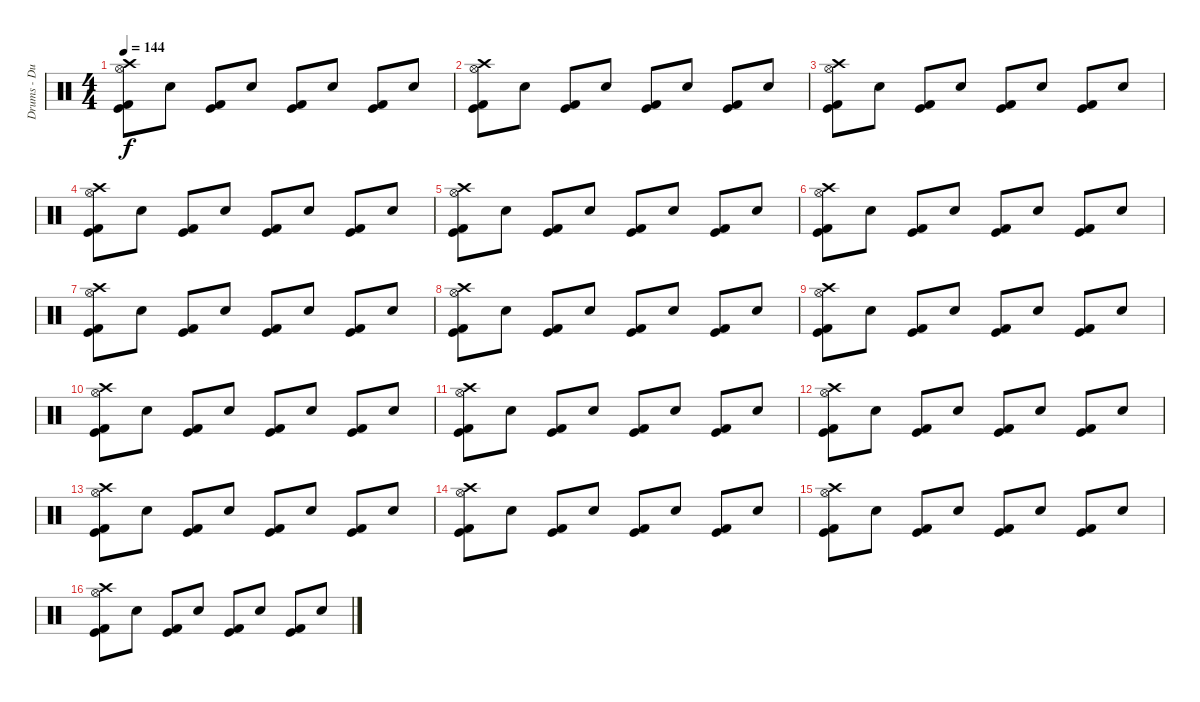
\track ("Drums - Duncan Scott" "Drums - Du") {instrument percussion}
\staff {score}
\articulation defaults
\ts (4 4)
\tempo 144
\clef neutral
\ks c
("Crash high (hit)" "Hi-Hat (open)" "Kick (hit)" "Kick (hit) 2").8{dy f} "Electric Snare (hit)".8 ("Kick (hit)" "Kick (hit) 2").8 "Electric Snare (hit)".8 ("Kick (hit)" "Kick (hit) 2").8 "Electric Snare (hit)".8 ("Kick (hit)" "Kick (hit) 2").8 "Electric Snare (hit)".8 |
("Crash high (hit)" "Hi-Hat (open)" "Kick (hit)" "Kick (hit) 2").8 "Electric Snare (hit)".8 ("Kick (hit)" "Kick (hit) 2").8 "Electric Snare (hit)".8 ("Kick (hit)" "Kick (hit) 2").8 "Electric Snare (hit)".8 ("Kick (hit)" "Kick (hit) 2").8 "Electric Snare (hit)".8 |
("Crash high (hit)" "Hi-Hat (open)" "Kick (hit)" "Kick (hit) 2").8 "Electric Snare (hit)".8 ("Kick (hit)" "Kick (hit) 2").8 "Electric Snare (hit)".8 ("Kick (hit)" "Kick (hit) 2").8 "Electric Snare (hit)".8 ("Kick (hit)" "Kick (hit) 2").8 "Electric Snare (hit)".8 |
("Crash high (hit)" "Hi-Hat (open)" "Kick (hit)" "Kick (hit) 2").8 "Electric Snare (hit)".8 ("Kick (hit)" "Kick (hit) 2").8 "Electric Snare (hit)".8 ("Kick (hit)" "Kick (hit) 2").8 "Electric Snare (hit)".8 ("Kick (hit)" "Kick (hit) 2").8 "Electric Snare (hit)".8 |
("Crash high (hit)" "Hi-Hat (open)" "Kick (hit)" "Kick (hit) 2").8 "Electric Snare (hit)".8 ("Kick (hit)" "Kick (hit) 2").8 "Electric Snare (hit)".8 ("Kick (hit)" "Kick (hit) 2").8 "Electric Snare (hit)".8 ("Kick (hit)" "Kick (hit) 2").8 "Electric Snare (hit)".8 |
("Crash high (hit)" "Hi-Hat (open)" "Kick (hit)" "Kick (hit) 2").8 "Electric Snare (hit)".8 ("Kick (hit)" "Kick (hit) 2").8 "Electric Snare (hit)".8 ("Kick (hit)" "Kick (hit) 2").8 "Electric Snare (hit)".8 ("Kick (hit)" "Kick (hit) 2").8 "Electric Snare (hit)".8 |
("Crash high (hit)" "Hi-Hat (open)" "Kick (hit)" "Kick (hit) 2").8 "Electric Snare (hit)".8 ("Kick (hit)" "Kick (hit) 2").8 "Electric Snare (hit)".8 ("Kick (hit)" "Kick (hit) 2").8 "Electric Snare (hit)".8 ("Kick (hit)" "Kick (hit) 2").8 "Electric Snare (hit)".8 |
("Crash high (hit)" "Hi-Hat (open)" "Kick (hit)" "Kick (hit) 2").8 "Electric Snare (hit)".8 ("Kick (hit)" "Kick (hit) 2").8 "Electric Snare (hit)".8 ("Kick (hit)" "Kick (hit) 2").8 "Electric Snare (hit)".8 ("Kick (hit)" "Kick (hit) 2").8 "Electric Snare (hit)".8 |
("Crash high (hit)" "Hi-Hat (open)" "Kick (hit)" "Kick (hit) 2").8 "Electric Snare (hit)".8 ("Kick (hit)" "Kick (hit) 2").8 "Electric Snare (hit)".8 ("Kick (hit)" "Kick (hit) 2").8 "Electric Snare (hit)".8 ("Kick (hit)" "Kick (hit) 2").8 "Electric Snare (hit)".8 |
("Crash high (hit)" "Hi-Hat (open)" "Kick (hit)" "Kick (hit) 2").8 "Electric Snare (hit)".8 ("Kick (hit)" "Kick (hit) 2").8 "Electric Snare (hit)".8 ("Kick (hit)" "Kick (hit) 2").8 "Electric Snare (hit)".8 ("Kick (hit)" "Kick (hit) 2").8 "Electric Snare (hit)".8 |
("Crash high (hit)" "Hi-Hat (open)" "Kick (hit)" "Kick (hit) 2").8 "Electric Snare (hit)".8 ("Kick (hit)" "Kick (hit) 2").8 "Electric Snare (hit)".8 ("Kick (hit)" "Kick (hit) 2").8 "Electric Snare (hit)".8 ("Kick (hit)" "Kick (hit) 2").8 "Electric Snare (hit)".8 |
("Crash high (hit)" "Hi-Hat (open)" "Kick (hit)" "Kick (hit) 2").8 "Electric Snare (hit)".8 ("Kick (hit)" "Kick (hit) 2").8 "Electric Snare (hit)".8 ("Kick (hit)" "Kick (hit) 2").8 "Electric Snare (hit)".8 ("Kick (hit)" "Kick (hit) 2").8 "Electric Snare (hit)".8 |
("Crash high (hit)" "Hi-Hat (open)" "Kick (hit)" "Kick (hit) 2").8 "Electric Snare (hit)".8 ("Kick (hit)" "Kick (hit) 2").8 "Electric Snare (hit)".8 ("Kick (hit)" "Kick (hit) 2").8 "Electric Snare (hit)".8 ("Kick (hit)" "Kick (hit) 2").8 "Electric Snare (hit)".8 |
("Crash high (hit)" "Hi-Hat (open)" "Kick (hit)" "Kick (hit) 2").8 "Electric Snare (hit)".8 ("Kick (hit)" "Kick (hit) 2").8 "Electric Snare (hit)".8 ("Kick (hit)" "Kick (hit) 2").8 "Electric Snare (hit)".8 ("Kick (hit)" "Kick (hit) 2").8 "Electric Snare (hit)".8 |
("Crash high (hit)" "Hi-Hat (open)" "Kick (hit)" "Kick (hit) 2").8 "Electric Snare (hit)".8 ("Kick (hit)" "Kick (hit) 2").8 "Electric Snare (hit)".8 ("Kick (hit)" "Kick (hit) 2").8 "Electric Snare (hit)".8 ("Kick (hit)" "Kick (hit) 2").8 "Electric Snare (hit)".8 |
("Crash high (hit)" "Hi-Hat (open)" "Kick (hit)" "Kick (hit) 2").8 "Electric Snare (hit)".8 ("Kick (hit)" "Kick (hit) 2").8 "Electric Snare (hit)".8 ("Kick (hit)" "Kick (hit) 2").8 "Electric Snare (hit)".8 ("Kick (hit)" "Kick (hit) 2").8 "Electric Snare (hit)".8
